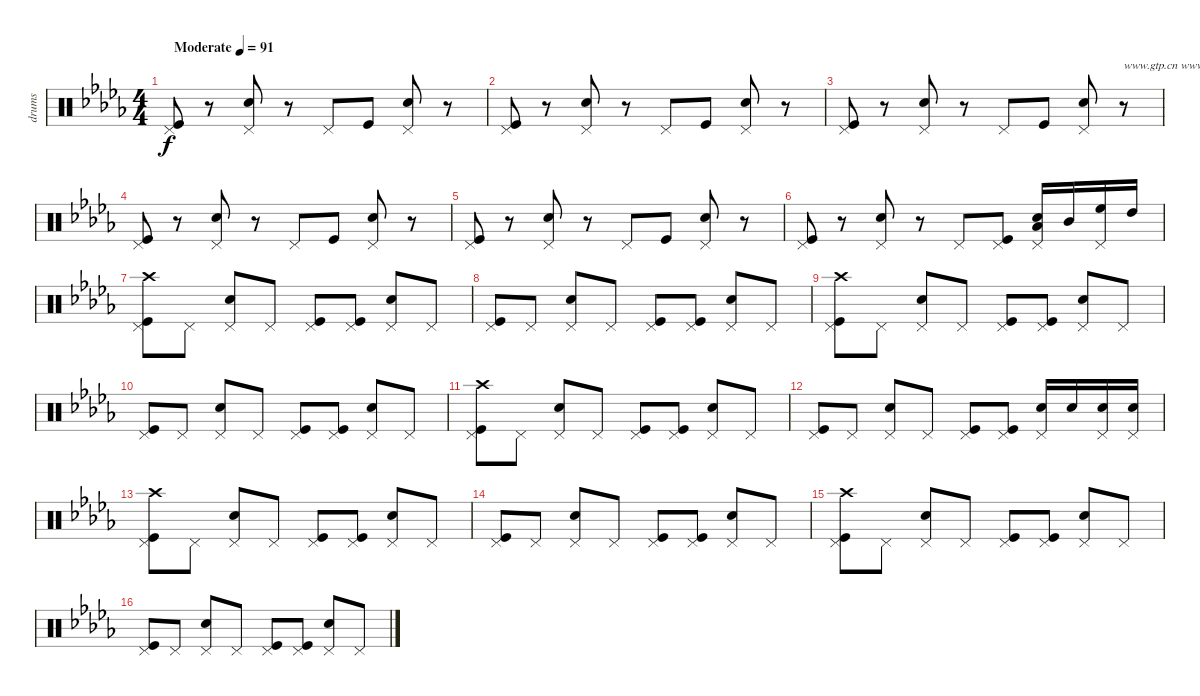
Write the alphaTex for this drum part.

\track ("drums" "drums") {instrument percussion}
\staff {score}
\articulation defaults
\ts (4 4)
\tempo (91 "Moderate")
\clef neutral
\ks db
("Pedal Hi-Hat (hit)" "Kick (hit)").8{dy f} r.8 ("Pedal Hi-Hat (hit)" "Snare (hit) 2").8 r.8 "Pedal Hi-Hat (hit)".8 "Kick (hit)".8 ("Pedal Hi-Hat (hit)" "Snare (hit) 2").8 r.8 |
("Pedal Hi-Hat (hit)" "Kick (hit)").8 r.8 ("Pedal Hi-Hat (hit)" "Snare (hit) 2").8 r.8 "Pedal Hi-Hat (hit)".8 "Kick (hit)".8 ("Pedal Hi-Hat (hit)" "Snare (hit) 2").8 r.8 |
("Pedal Hi-Hat (hit)" "Kick (hit)").8 r.8 ("Pedal Hi-Hat (hit)" "Snare (hit) 2").8 r.8 "Pedal Hi-Hat (hit)".8 "Kick (hit)".8 ("Pedal Hi-Hat (hit)" "Snare (hit) 2").8 r.8{txt "www.gtp.cn www.51gtp.com联合为您提供优秀的GTP!"} |
("Pedal Hi-Hat (hit)" "Kick (hit)").8 r.8 ("Pedal Hi-Hat (hit)" "Snare (hit) 2").8 r.8 "Pedal Hi-Hat (hit)".8 "Kick (hit)".8 ("Pedal Hi-Hat (hit)" "Snare (hit) 2").8 r.8 |
("Pedal Hi-Hat (hit)" "Kick (hit)").8 r.8 ("Pedal Hi-Hat (hit)" "Snare (hit) 2").8 r.8 "Pedal Hi-Hat (hit)".8 "Kick (hit)".8 ("Pedal Hi-Hat (hit)" "Snare (hit) 2").8 r.8 |
("Pedal Hi-Hat (hit)" "Kick (hit)").8 r.8 ("Pedal Hi-Hat (hit)" "Snare (hit) 2").8 r.8 "Pedal Hi-Hat (hit)".8 ("Pedal Hi-Hat (hit)" "Kick (hit)").8 ("Low Tom (hit)" "Pedal Hi-Hat (hit)" "Snare (hit) 2").16 "Mid Tom (hit)".16 ("High Floor Tom (hit)" "Pedal Hi-Hat (hit)").16 "High Tom (hit)".16 |
("Crash high (hit)" "Pedal Hi-Hat (hit)" "Kick (hit)").8 "Pedal Hi-Hat (hit)".8 ("Pedal Hi-Hat (hit)" "Electric Snare (hit)").8 "Pedal Hi-Hat (hit)".8 ("Pedal Hi-Hat (hit)" "Kick (hit)").8 ("Pedal Hi-Hat (hit)" "Kick (hit)").8 ("Pedal Hi-Hat (hit)" "Electric Snare (hit)").8 "Pedal Hi-Hat (hit)".8 |
("Pedal Hi-Hat (hit)" "Kick (hit)").8 "Pedal Hi-Hat (hit)".8 ("Pedal Hi-Hat (hit)" "Snare (hit) 2").8 "Pedal Hi-Hat (hit)".8 ("Pedal Hi-Hat (hit)" "Kick (hit)").8 ("Pedal Hi-Hat (hit)" "Kick (hit)").8 ("Pedal Hi-Hat (hit)" "Snare (hit) 2").8 "Pedal Hi-Hat (hit)".8 |
("Crash high (hit)" "Pedal Hi-Hat (hit)" "Kick (hit)").8 "Pedal Hi-Hat (hit)".8 ("Pedal Hi-Hat (hit)" "Electric Snare (hit)").8 "Pedal Hi-Hat (hit)".8 ("Pedal Hi-Hat (hit)" "Kick (hit)").8 ("Pedal Hi-Hat (hit)" "Kick (hit)").8 ("Pedal Hi-Hat (hit)" "Electric Snare (hit)").8 "Pedal Hi-Hat (hit)".8 |
("Pedal Hi-Hat (hit)" "Kick (hit)").8 "Pedal Hi-Hat (hit)".8 ("Pedal Hi-Hat (hit)" "Snare (hit) 2").8 "Pedal Hi-Hat (hit)".8 ("Pedal Hi-Hat (hit)" "Kick (hit)").8 ("Pedal Hi-Hat (hit)" "Kick (hit)").8 ("Pedal Hi-Hat (hit)" "Snare (hit) 2").8 "Pedal Hi-Hat (hit)".8 |
("Crash high (hit)" "Pedal Hi-Hat (hit)" "Kick (hit)").8 "Pedal Hi-Hat (hit)".8 ("Pedal Hi-Hat (hit)" "Electric Snare (hit)").8 "Pedal Hi-Hat (hit)".8 ("Pedal Hi-Hat (hit)" "Kick (hit)").8 ("Pedal Hi-Hat (hit)" "Kick (hit)").8 ("Pedal Hi-Hat (hit)" "Electric Snare (hit)").8 "Pedal Hi-Hat (hit)".8 |
("Pedal Hi-Hat (hit)" "Kick (hit)").8 "Pedal Hi-Hat (hit)".8 ("Pedal Hi-Hat (hit)" "Snare (hit) 2").8 "Pedal Hi-Hat (hit)".8 ("Pedal Hi-Hat (hit)" "Kick (hit)").8 ("Pedal Hi-Hat (hit)" "Kick (hit)").8 ("Pedal Hi-Hat (hit)" "Snare (hit) 2").16 "Snare (hit) 2".16 ("Pedal Hi-Hat (hit)" "Snare (hit) 2").16 ("Pedal Hi-Hat (hit)" "Snare (hit) 2").16 |
("Crash high (hit)" "Pedal Hi-Hat (hit)" "Kick (hit)").8 "Pedal Hi-Hat (hit)".8 ("Pedal Hi-Hat (hit)" "Electric Snare (hit)").8 "Pedal Hi-Hat (hit)".8 ("Pedal Hi-Hat (hit)" "Kick (hit)").8 ("Pedal Hi-Hat (hit)" "Kick (hit)").8 ("Pedal Hi-Hat (hit)" "Electric Snare (hit)").8 "Pedal Hi-Hat (hit)".8 |
("Pedal Hi-Hat (hit)" "Kick (hit)").8 "Pedal Hi-Hat (hit)".8 ("Pedal Hi-Hat (hit)" "Snare (hit) 2").8 "Pedal Hi-Hat (hit)".8 ("Pedal Hi-Hat (hit)" "Kick (hit)").8 ("Pedal Hi-Hat (hit)" "Kick (hit)").8 ("Pedal Hi-Hat (hit)" "Snare (hit) 2").8 "Pedal Hi-Hat (hit)".8 |
("Crash high (hit)" "Pedal Hi-Hat (hit)" "Kick (hit)").8 "Pedal Hi-Hat (hit)".8 ("Pedal Hi-Hat (hit)" "Electric Snare (hit)").8 "Pedal Hi-Hat (hit)".8 ("Pedal Hi-Hat (hit)" "Kick (hit)").8 ("Pedal Hi-Hat (hit)" "Kick (hit)").8 ("Pedal Hi-Hat (hit)" "Electric Snare (hit)").8 "Pedal Hi-Hat (hit)".8 |
("Pedal Hi-Hat (hit)" "Kick (hit)").8 "Pedal Hi-Hat (hit)".8 ("Pedal Hi-Hat (hit)" "Snare (hit) 2").8 "Pedal Hi-Hat (hit)".8 ("Pedal Hi-Hat (hit)" "Kick (hit)").8 ("Pedal Hi-Hat (hit)" "Kick (hit)").8 ("Pedal Hi-Hat (hit)" "Snare (hit) 2").8 "Pedal Hi-Hat (hit)".8
